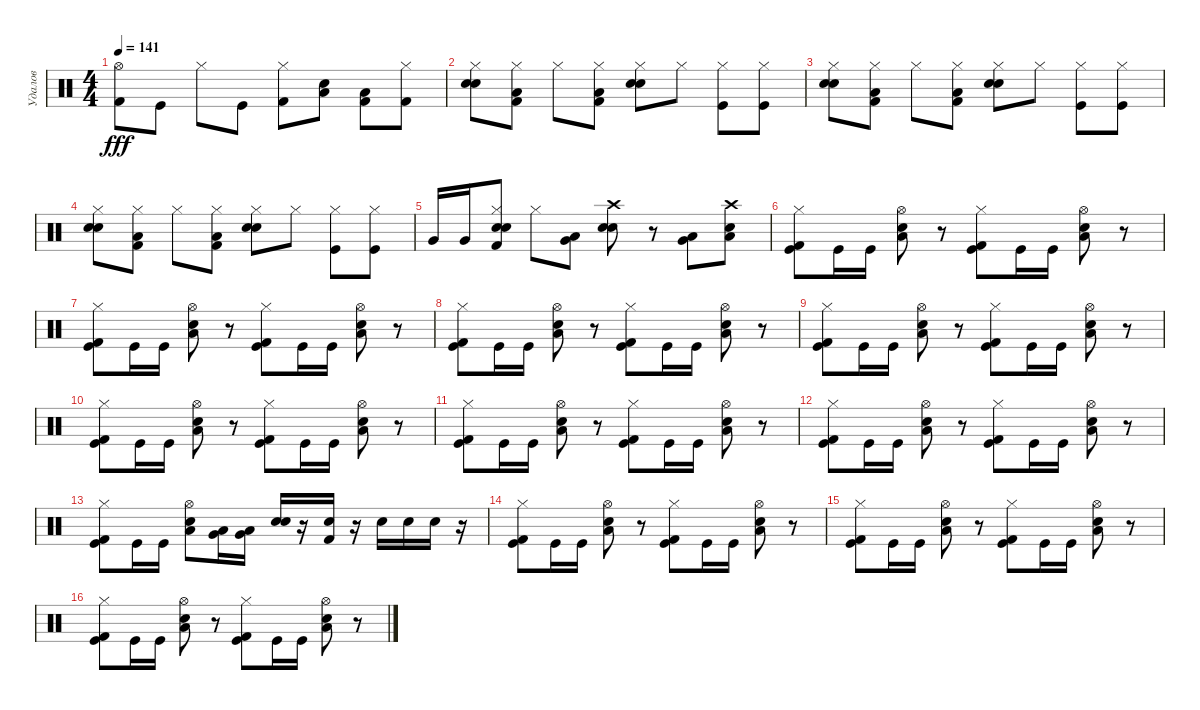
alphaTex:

\track ("Удалов" "Удалов") {instrument percussion}
\staff {score}
\articulation defaults
\ts (4 4)
\tempo 141
\clef neutral
\ks c
("Hi-Hat (open)" "Kick (hit) 2").8{dy fff} "Kick (hit)".8 "Hi-Hat (closed)".8 "Kick (hit)".8 ("Kick (hit) 2" "Hi-Hat (closed)").8 ("Snare (hit) 2" "Low Tom (hit)").8 ("Low Floor Tom (hit)" "Kick (hit) 2").8 ("Kick (hit) 2" "Hi-Hat (closed)").8 |
("Electric Snare (hit)" "Snare (hit) 2" "Hi-Hat (closed)").8 ("Hi-Hat (closed)" "Low Floor Tom (hit)" "Kick (hit) 2").8 "Hi-Hat (closed)".8 ("Hi-Hat (closed)" "Low Floor Tom (hit)" "Kick (hit) 2").8 ("Hi-Hat (closed)" "Electric Snare (hit)" "Snare (hit) 2").8 "Hi-Hat (closed)".8 ("Hi-Hat (closed)" "Kick (hit)").8 ("Hi-Hat (closed)" "Kick (hit)").8 |
("Electric Snare (hit)" "Snare (hit) 2" "Hi-Hat (closed)").8 ("Hi-Hat (closed)" "Low Floor Tom (hit)" "Kick (hit) 2").8 "Hi-Hat (closed)".8 ("Hi-Hat (closed)" "Low Floor Tom (hit)" "Kick (hit) 2").8 ("Hi-Hat (closed)" "Electric Snare (hit)" "Snare (hit) 2").8 "Hi-Hat (closed)".8 ("Hi-Hat (closed)" "Kick (hit)").8 ("Hi-Hat (closed)" "Kick (hit)").8 |
("Electric Snare (hit)" "Snare (hit) 2" "Hi-Hat (closed)").8 ("Hi-Hat (closed)" "Low Floor Tom (hit)" "Kick (hit) 2").8 "Hi-Hat (closed)".8 ("Hi-Hat (closed)" "Low Floor Tom (hit)" "Kick (hit) 2").8 ("Hi-Hat (closed)" "Electric Snare (hit)" "Snare (hit) 2").8 "Hi-Hat (closed)".8 ("Hi-Hat (closed)" "Kick (hit)").8 ("Hi-Hat (closed)" "Kick (hit)").8 |
"Very Low Tom (hit)".16 "Very Low Tom (hit)".16 ("Hi-Hat (closed)" "Kick (hit) 2" "Electric Snare (hit)" "Snare (hit) 2").8 "Hi-Hat (closed)".8 ("Low Tom (hit)" "Very Low Tom (hit)").8 ("Crash high (hit)" "Snare (hit) 2" "Electric Snare (hit)").8 r.8 ("Very Low Tom (hit)" "Low Tom (hit)").8 ("Crash high (hit)" "Low Tom (hit)" "Snare (hit) 2").8 |
("Hi-Hat (closed)" "Kick (hit)" "Kick (hit) 2").8 "Kick (hit)".16 "Kick (hit)".16 ("Hi-Hat (open)" "Low Tom (hit)" "Snare (hit) 2").8 r.8 ("Hi-Hat (closed)" "Kick (hit)" "Kick (hit) 2").8 "Kick (hit)".16 "Kick (hit)".16 ("Hi-Hat (open)" "Low Tom (hit)" "Snare (hit) 2").8 r.8 |
("Hi-Hat (closed)" "Kick (hit)" "Kick (hit) 2").8 "Kick (hit)".16 "Kick (hit)".16 ("Hi-Hat (open)" "Low Tom (hit)" "Snare (hit) 2").8 r.8 ("Hi-Hat (closed)" "Kick (hit)" "Kick (hit) 2").8 "Kick (hit)".16 "Kick (hit)".16 ("Hi-Hat (open)" "Low Tom (hit)" "Snare (hit) 2").8 r.8 |
("Hi-Hat (closed)" "Kick (hit)" "Kick (hit) 2").8 "Kick (hit)".16 "Kick (hit)".16 ("Hi-Hat (open)" "Low Tom (hit)" "Snare (hit) 2").8 r.8 ("Hi-Hat (closed)" "Kick (hit)" "Kick (hit) 2").8 "Kick (hit)".16 "Kick (hit)".16 ("Hi-Hat (open)" "Low Tom (hit)" "Snare (hit) 2").8 r.8 |
("Hi-Hat (closed)" "Kick (hit)" "Kick (hit) 2").8 "Kick (hit)".16 "Kick (hit)".16 ("Hi-Hat (open)" "Low Tom (hit)" "Snare (hit) 2").8 r.8 ("Hi-Hat (closed)" "Kick (hit)" "Kick (hit) 2").8 "Kick (hit)".16 "Kick (hit)".16 ("Hi-Hat (open)" "Low Tom (hit)" "Snare (hit) 2").8 r.8 |
("Hi-Hat (closed)" "Kick (hit)" "Kick (hit) 2").8 "Kick (hit)".16 "Kick (hit)".16 ("Hi-Hat (open)" "Low Tom (hit)" "Snare (hit) 2").8 r.8 ("Hi-Hat (closed)" "Kick (hit)" "Kick (hit) 2").8 "Kick (hit)".16 "Kick (hit)".16 ("Hi-Hat (open)" "Low Tom (hit)" "Snare (hit) 2").8 r.8 |
("Hi-Hat (closed)" "Kick (hit)" "Kick (hit) 2").8 "Kick (hit)".16 "Kick (hit)".16 ("Hi-Hat (open)" "Low Tom (hit)" "Snare (hit) 2").8 r.8 ("Hi-Hat (closed)" "Kick (hit)" "Kick (hit) 2").8 "Kick (hit)".16 "Kick (hit)".16 ("Hi-Hat (open)" "Low Tom (hit)" "Snare (hit) 2").8 r.8 |
("Hi-Hat (closed)" "Kick (hit)" "Kick (hit) 2").8 "Kick (hit)".16 "Kick (hit)".16 ("Hi-Hat (open)" "Low Tom (hit)" "Snare (hit) 2").8 r.8 ("Hi-Hat (closed)" "Kick (hit)" "Kick (hit) 2").8 "Kick (hit)".16 "Kick (hit)".16 ("Hi-Hat (open)" "Low Tom (hit)" "Snare (hit) 2").8 r.8 |
("Hi-Hat (closed)" "Kick (hit)" "Kick (hit) 2").8 "Kick (hit)".16 "Kick (hit)".16 ("Hi-Hat (open)" "Low Tom (hit)" "Snare (hit) 2").8 ("Very Low Tom (hit)" "Low Tom (hit)").16 ("Very Low Tom (hit)" "Low Tom (hit)").16 ("Electric Snare (hit)" "Snare (hit) 2").16 r.16 ("Kick (hit) 2" "Snare (hit) 2").16 r.16 "Snare (hit) 2".16 "Snare (hit) 2".16 "Snare (hit) 2".16 r.16 |
("Hi-Hat (closed)" "Kick (hit)" "Kick (hit) 2").8 "Kick (hit)".16 "Kick (hit)".16 ("Hi-Hat (open)" "Low Tom (hit)" "Snare (hit) 2").8 r.8 ("Hi-Hat (closed)" "Kick (hit)" "Kick (hit) 2").8 "Kick (hit)".16 "Kick (hit)".16 ("Hi-Hat (open)" "Low Tom (hit)" "Snare (hit) 2").8 r.8 |
("Hi-Hat (closed)" "Kick (hit)" "Kick (hit) 2").8 "Kick (hit)".16 "Kick (hit)".16 ("Hi-Hat (open)" "Low Tom (hit)" "Snare (hit) 2").8 r.8 ("Hi-Hat (closed)" "Kick (hit)" "Kick (hit) 2").8 "Kick (hit)".16 "Kick (hit)".16 ("Hi-Hat (open)" "Low Tom (hit)" "Snare (hit) 2").8 r.8 |
("Hi-Hat (closed)" "Kick (hit)" "Kick (hit) 2").8 "Kick (hit)".16 "Kick (hit)".16 ("Hi-Hat (open)" "Low Tom (hit)" "Snare (hit) 2").8 r.8 ("Hi-Hat (closed)" "Kick (hit)" "Kick (hit) 2").8 "Kick (hit)".16 "Kick (hit)".16 ("Hi-Hat (open)" "Low Tom (hit)" "Snare (hit) 2").8 r.8
